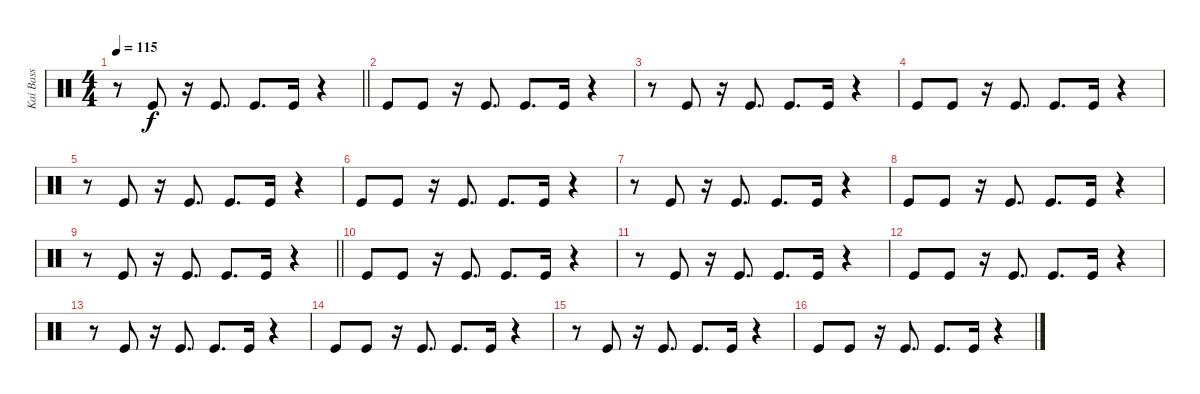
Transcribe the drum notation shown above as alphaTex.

\track ("Kai Bass" "Kai Bass") {instrument percussion}
\staff {score}
\articulation defaults
\ts (4 4)
\tempo 115
\clef neutral
\barLineRight lightlight
\ks c
r.8{dy f} "Kick (hit)".8 r.16 "Kick (hit)".8{d} "Kick (hit)".8{d} "Kick (hit)".16 r.4 |
"Kick (hit)".8 "Kick (hit)".8 r.16 "Kick (hit)".8{d} "Kick (hit)".8{d} "Kick (hit)".16 r.4 |
r.8 "Kick (hit)".8 r.16 "Kick (hit)".8{d} "Kick (hit)".8{d} "Kick (hit)".16 r.4 |
"Kick (hit)".8 "Kick (hit)".8 r.16 "Kick (hit)".8{d} "Kick (hit)".8{d} "Kick (hit)".16 r.4 |
r.8 "Kick (hit)".8 r.16 "Kick (hit)".8{d} "Kick (hit)".8{d} "Kick (hit)".16 r.4 |
"Kick (hit)".8 "Kick (hit)".8 r.16 "Kick (hit)".8{d} "Kick (hit)".8{d} "Kick (hit)".16 r.4 |
r.8 "Kick (hit)".8 r.16 "Kick (hit)".8{d} "Kick (hit)".8{d} "Kick (hit)".16 r.4 |
"Kick (hit)".8 "Kick (hit)".8 r.16 "Kick (hit)".8{d} "Kick (hit)".8{d} "Kick (hit)".16 r.4 |
\barLineRight lightlight
r.8 "Kick (hit)".8 r.16 "Kick (hit)".8{d} "Kick (hit)".8{d} "Kick (hit)".16 r.4 |
"Kick (hit)".8 "Kick (hit)".8 r.16 "Kick (hit)".8{d} "Kick (hit)".8{d} "Kick (hit)".16 r.4 |
r.8 "Kick (hit)".8 r.16 "Kick (hit)".8{d} "Kick (hit)".8{d} "Kick (hit)".16 r.4 |
"Kick (hit)".8 "Kick (hit)".8 r.16 "Kick (hit)".8{d} "Kick (hit)".8{d} "Kick (hit)".16 r.4 |
r.8 "Kick (hit)".8 r.16 "Kick (hit)".8{d} "Kick (hit)".8{d} "Kick (hit)".16 r.4 |
"Kick (hit)".8 "Kick (hit)".8 r.16 "Kick (hit)".8{d} "Kick (hit)".8{d} "Kick (hit)".16 r.4 |
r.8 "Kick (hit)".8 r.16 "Kick (hit)".8{d} "Kick (hit)".8{d} "Kick (hit)".16 r.4 |
"Kick (hit)".8 "Kick (hit)".8 r.16 "Kick (hit)".8{d} "Kick (hit)".8{d} "Kick (hit)".16 r.4
